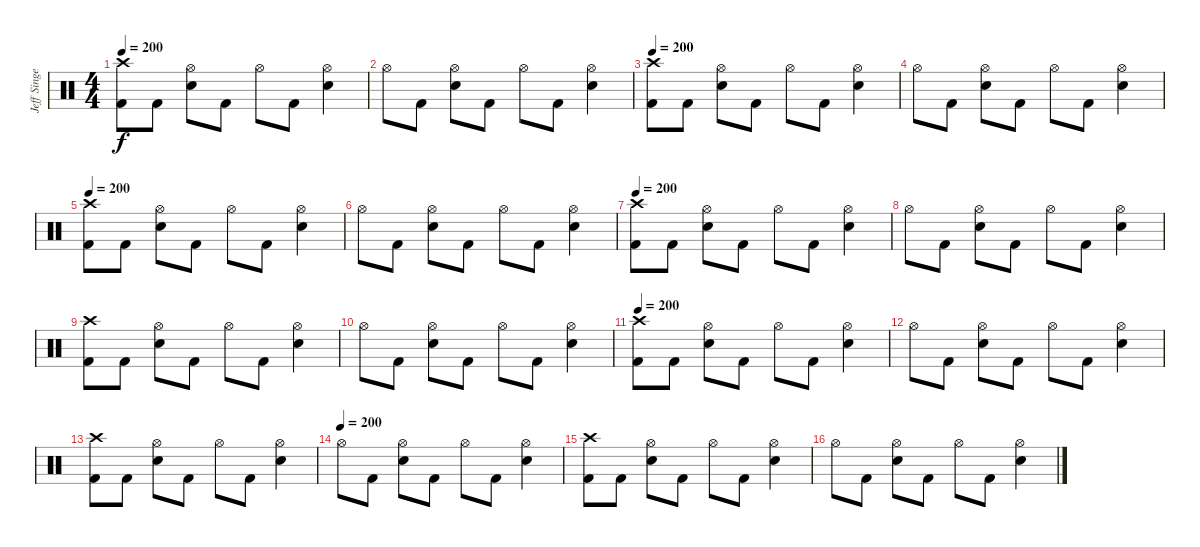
\track ("Jeff Singer" "Jeff Singe") {instrument percussion}
\staff {score}
\articulation defaults
\ts (4 4)
\tempo 200
\clef neutral
\ks c
("Crash high (hit)" "Kick (hit) 2").8{dy f} "Kick (hit) 2".8 ("Hi-Hat (open)" "Snare (hit) 2").8 "Kick (hit) 2".8 "Hi-Hat (open)".8 "Kick (hit) 2".8 ("Hi-Hat (open)" "Snare (hit) 2").4 |
"Hi-Hat (open)".8 "Kick (hit) 2".8 ("Hi-Hat (open)" "Snare (hit) 2").8 "Kick (hit) 2".8 "Hi-Hat (open)".8 "Kick (hit) 2".8 ("Hi-Hat (open)" "Snare (hit) 2").4 |
\tempo 200
("Crash high (hit)" "Kick (hit) 2").8 "Kick (hit) 2".8 ("Hi-Hat (open)" "Snare (hit) 2").8 "Kick (hit) 2".8 "Hi-Hat (open)".8 "Kick (hit) 2".8 ("Hi-Hat (open)" "Snare (hit) 2").4 |
"Hi-Hat (open)".8 "Kick (hit) 2".8 ("Hi-Hat (open)" "Snare (hit) 2").8 "Kick (hit) 2".8 "Hi-Hat (open)".8 "Kick (hit) 2".8 ("Hi-Hat (open)" "Snare (hit) 2").4 |
\tempo 200
("Crash high (hit)" "Kick (hit) 2").8 "Kick (hit) 2".8 ("Hi-Hat (open)" "Snare (hit) 2").8 "Kick (hit) 2".8 "Hi-Hat (open)".8 "Kick (hit) 2".8 ("Hi-Hat (open)" "Snare (hit) 2").4 |
"Hi-Hat (open)".8 "Kick (hit) 2".8 ("Hi-Hat (open)" "Snare (hit) 2").8 "Kick (hit) 2".8 "Hi-Hat (open)".8 "Kick (hit) 2".8 ("Hi-Hat (open)" "Snare (hit) 2").4 |
\tempo 200
("Crash high (hit)" "Kick (hit) 2").8 "Kick (hit) 2".8 ("Hi-Hat (open)" "Snare (hit) 2").8 "Kick (hit) 2".8 "Hi-Hat (open)".8 "Kick (hit) 2".8 ("Hi-Hat (open)" "Snare (hit) 2").4 |
"Hi-Hat (open)".8 "Kick (hit) 2".8 ("Hi-Hat (open)" "Snare (hit) 2").8 "Kick (hit) 2".8 "Hi-Hat (open)".8 "Kick (hit) 2".8 ("Hi-Hat (open)" "Snare (hit) 2").4 |
("Crash high (hit)" "Kick (hit) 2").8 "Kick (hit) 2".8 ("Hi-Hat (open)" "Snare (hit) 2").8 "Kick (hit) 2".8 "Hi-Hat (open)".8 "Kick (hit) 2".8 ("Hi-Hat (open)" "Snare (hit) 2").4 |
"Hi-Hat (open)".8 "Kick (hit) 2".8 ("Hi-Hat (open)" "Snare (hit) 2").8 "Kick (hit) 2".8 "Hi-Hat (open)".8 "Kick (hit) 2".8 ("Hi-Hat (open)" "Snare (hit) 2").4 |
\tempo 200
("Crash high (hit)" "Kick (hit) 2").8 "Kick (hit) 2".8 ("Hi-Hat (open)" "Snare (hit) 2").8 "Kick (hit) 2".8 "Hi-Hat (open)".8 "Kick (hit) 2".8 ("Hi-Hat (open)" "Snare (hit) 2").4 |
"Hi-Hat (open)".8 "Kick (hit) 2".8 ("Hi-Hat (open)" "Snare (hit) 2").8 "Kick (hit) 2".8 "Hi-Hat (open)".8 "Kick (hit) 2".8 ("Hi-Hat (open)" "Snare (hit) 2").4 |
("Crash high (hit)" "Kick (hit) 2").8 "Kick (hit) 2".8 ("Hi-Hat (open)" "Snare (hit) 2").8 "Kick (hit) 2".8 "Hi-Hat (open)".8 "Kick (hit) 2".8 ("Hi-Hat (open)" "Snare (hit) 2").4 |
\tempo (200)
"Hi-Hat (open)".8 "Kick (hit) 2".8 ("Hi-Hat (open)" "Snare (hit) 2").8 "Kick (hit) 2".8 "Hi-Hat (open)".8 "Kick (hit) 2".8 ("Hi-Hat (open)" "Snare (hit) 2").4 |
("Crash high (hit)" "Kick (hit) 2").8 "Kick (hit) 2".8 ("Hi-Hat (open)" "Snare (hit) 2").8 "Kick (hit) 2".8 "Hi-Hat (open)".8 "Kick (hit) 2".8 ("Hi-Hat (open)" "Snare (hit) 2").4 |
"Hi-Hat (open)".8 "Kick (hit) 2".8 ("Hi-Hat (open)" "Snare (hit) 2").8 "Kick (hit) 2".8 "Hi-Hat (open)".8 "Kick (hit) 2".8 ("Hi-Hat (open)" "Snare (hit) 2").4
